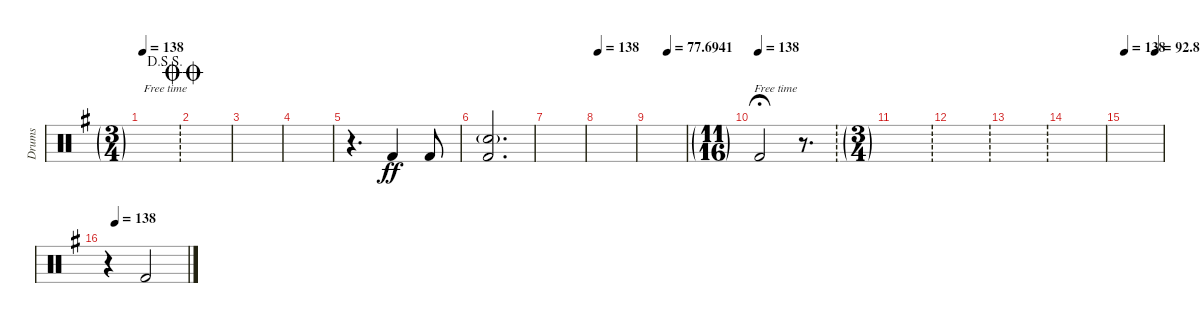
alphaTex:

\defaultSystemsLayout 4
\bracketExtendMode groupsimilarinstruments
\otherSystemsTrackNameOrientation horizontal
\track ("Drumkit" "Drums") {instrument percussion}
\staff {score}
\articulation defaults
\ts (3 4)
\ft
\scale
0.142544
\jump dalsegnosegno
\tempo 138
\accidentals auto
\clef neutral
\ottava regular
\simile none
\ks eminor
|
\beaming (8 2 2 2)
\scale
0.382005
\jump doublecoda
|
\scale
0.312883 |
|
r.4{d beam Down} "Kick (hit) 2"{acc forcenatural}.4{dy ff beam Up} "Kick (hit) 2"{acc forcenatural}.8{beam Up} |
("Kick (hit) 2"{acc forcenatural} "Snare (hit) 2"{g acc forcenatural}).2{d beam Up} |
|
\scale
0.192351
\tempo 138
|
\scale
0.226539
\tempo (77.6941 0.5)
|
\ts (11 16)
\beaming (8 2 2 2)
\ft
\scale
0.390709
\tempo (138)
"Kick (hit) 2"{acc forcenatural}.2{fermata (medium 0.5) beam Up} r.8{d beam Up} |
\ts (3 4)
\beaming (8 2 2 2)
\ft
\scale
0.0930649 |
\ft
\scale
0.0565349 |
\ft
\scale
0.33552 |
\scale
0.347068 |
\scale
0.0952204
\tempo 138
\tempo (92.8353 0.8125)
|
\scale
0.306335
\tempo (138 0.09375)
r.4{beam Down} "Kick (hit) 2"{acc forcenatural}.2{beam Up}
